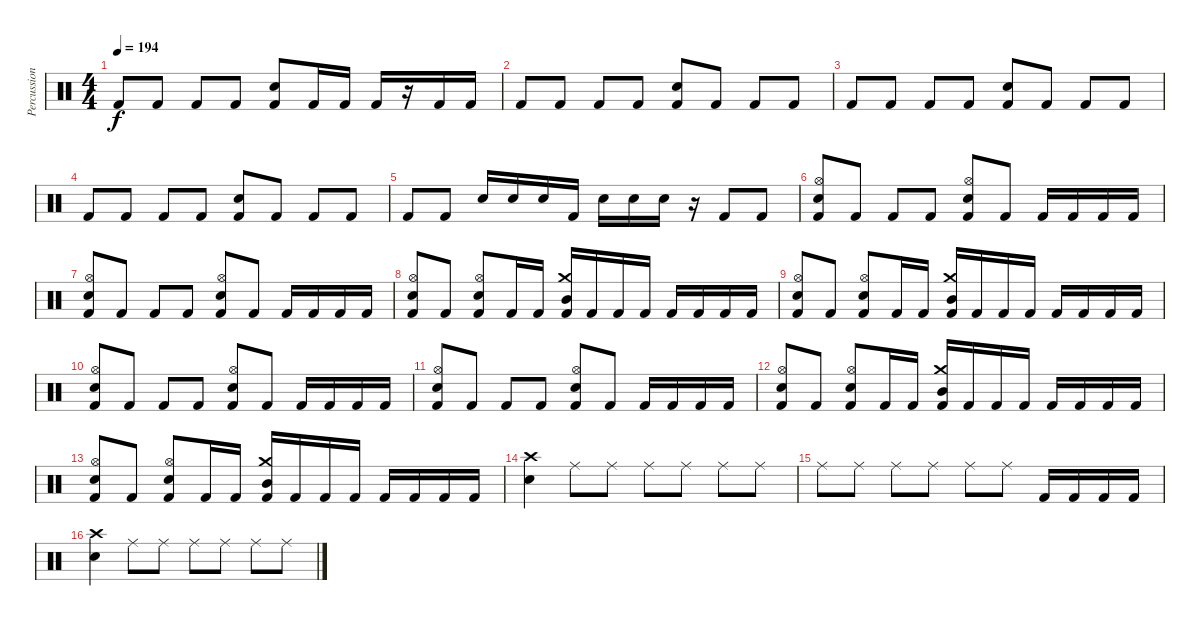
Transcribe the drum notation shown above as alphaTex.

\track ("Percussions" "Percussion") {instrument percussion}
\staff {score}
\articulation defaults
\ts (4 4)
\tempo 194
\clef neutral
\ks c "Kick (hit) 2".8{dy f} "Kick (hit) 2".8 "Kick (hit) 2".8 "Kick (hit) 2".8
("Snare (hit) 2" "Kick (hit) 2").8 "Kick (hit) 2".16 "Kick (hit) 2".16 "Kick (hit) 2".16 r.16 "Kick (hit) 2".16 "Kick (hit) 2".16 |
"Kick (hit) 2".8 "Kick (hit) 2".8 "Kick (hit) 2".8 "Kick (hit) 2".8 ("Snare (hit) 2" "Kick (hit) 2").8 "Kick (hit) 2".8 "Kick (hit) 2".8 "Kick (hit) 2".8 |
"Kick (hit) 2".8 "Kick (hit) 2".8 "Kick (hit) 2".8 "Kick (hit) 2".8 ("Snare (hit) 2" "Kick (hit) 2").8 "Kick (hit) 2".8 "Kick (hit) 2".8 "Kick (hit) 2".8 |
"Kick (hit) 2".8 "Kick (hit) 2".8 "Kick (hit) 2".8 "Kick (hit) 2".8 ("Snare (hit) 2" "Kick (hit) 2").8 "Kick (hit) 2".8 "Kick (hit) 2".8 "Kick (hit) 2".8 |
"Kick (hit) 2".8 "Kick (hit) 2".8 "Snare (hit) 2".16 "Snare (hit) 2".16 "Snare (hit) 2".16 "Kick (hit) 2".16 "Snare (hit) 2".16 "Snare (hit) 2".16 "Snare (hit) 2".16 r.16 "Kick (hit) 2".8 "Kick (hit) 2".8 |
("Hi-Hat (open)" "Electric Snare (hit)" "Kick (hit) 2").8 "Kick (hit) 2".8 "Kick (hit) 2".8 "Kick (hit) 2".8 ("Hi-Hat (open)" "Electric Snare (hit)" "Kick (hit) 2").8 "Kick (hit) 2".8 "Kick (hit) 2".16 "Kick (hit) 2".16 "Kick (hit) 2".16 "Kick (hit) 2".16 |
("Hi-Hat (open)" "Electric Snare (hit)" "Kick (hit) 2").8 "Kick (hit) 2".8 "Kick (hit) 2".8 "Kick (hit) 2".8 ("Hi-Hat (open)" "Electric Snare (hit)" "Kick (hit) 2").8 "Kick (hit) 2".8 "Kick (hit) 2".16 "Kick (hit) 2".16 "Kick (hit) 2".16 "Kick (hit) 2".16 |
("Hi-Hat (open)" "Electric Snare (hit)" "Kick (hit) 2").8 "Kick (hit) 2".8 ("Hi-Hat (open)" "Electric Snare (hit)" "Kick (hit) 2").8 "Kick (hit) 2".16 "Kick (hit) 2".16 ("Crash medium (hit)" "Mid Tom (hit)" "Kick (hit) 2").16 "Kick (hit) 2".16 "Kick (hit) 2".16 "Kick (hit) 2".16 "Kick (hit) 2".16 "Kick (hit) 2".16 "Kick (hit) 2".16 "Kick (hit) 2".16 |
("Hi-Hat (open)" "Electric Snare (hit)" "Kick (hit) 2").8 "Kick (hit) 2".8 ("Hi-Hat (open)" "Electric Snare (hit)" "Kick (hit) 2").8 "Kick (hit) 2".16 "Kick (hit) 2".16 ("Crash medium (hit)" "Mid Tom (hit)" "Kick (hit) 2").16 "Kick (hit) 2".16 "Kick (hit) 2".16 "Kick (hit) 2".16 "Kick (hit) 2".16 "Kick (hit) 2".16 "Kick (hit) 2".16 "Kick (hit) 2".16 |
("Hi-Hat (open)" "Electric Snare (hit)" "Kick (hit) 2").8 "Kick (hit) 2".8 "Kick (hit) 2".8 "Kick (hit) 2".8 ("Hi-Hat (open)" "Electric Snare (hit)" "Kick (hit) 2").8 "Kick (hit) 2".8 "Kick (hit) 2".16 "Kick (hit) 2".16 "Kick (hit) 2".16 "Kick (hit) 2".16 |
("Hi-Hat (open)" "Electric Snare (hit)" "Kick (hit) 2").8 "Kick (hit) 2".8 "Kick (hit) 2".8 "Kick (hit) 2".8 ("Hi-Hat (open)" "Electric Snare (hit)" "Kick (hit) 2").8 "Kick (hit) 2".8 "Kick (hit) 2".16 "Kick (hit) 2".16 "Kick (hit) 2".16 "Kick (hit) 2".16 |
("Hi-Hat (open)" "Electric Snare (hit)" "Kick (hit) 2").8 "Kick (hit) 2".8 ("Hi-Hat (open)" "Electric Snare (hit)" "Kick (hit) 2").8 "Kick (hit) 2".16 "Kick (hit) 2".16 ("Crash medium (hit)" "Mid Tom (hit)" "Kick (hit) 2").16 "Kick (hit) 2".16 "Kick (hit) 2".16 "Kick (hit) 2".16 "Kick (hit) 2".16 "Kick (hit) 2".16 "Kick (hit) 2".16 "Kick (hit) 2".16 |
("Hi-Hat (open)" "Electric Snare (hit)" "Kick (hit) 2").8 "Kick (hit) 2".8 ("Hi-Hat (open)" "Electric Snare (hit)" "Kick (hit) 2").8 "Kick (hit) 2".16 "Kick (hit) 2".16 ("Crash medium (hit)" "Mid Tom (hit)" "Kick (hit) 2").16 "Kick (hit) 2".16 "Kick (hit) 2".16 "Kick (hit) 2".16 "Kick (hit) 2".16 "Kick (hit) 2".16 "Kick (hit) 2".16 "Kick (hit) 2".16 |
("Crash high (hit)" "Electric Snare (hit)").4 "Ride (middle)".8 "Ride (middle)".8 "Ride (middle)".8 "Ride (middle)".8 "Ride (middle)".8 "Ride (middle)".8 |
"Ride (middle)".8 "Ride (middle)".8 "Ride (middle)".8 "Ride (middle)".8 "Ride (middle)".8 "Ride (middle)".8 "Kick (hit) 2".16 "Kick (hit) 2".16 "Kick (hit) 2".16 "Kick (hit) 2".16 |
("Crash high (hit)" "Electric Snare (hit)").4 "Ride (middle)".8 "Ride (middle)".8 "Ride (middle)".8 "Ride (middle)".8 "Ride (middle)".8 "Ride (middle)".8
